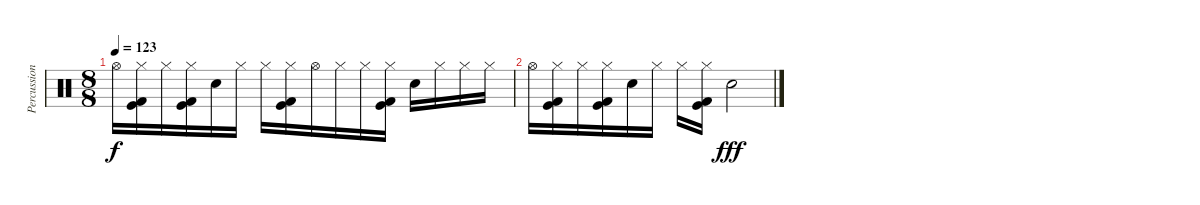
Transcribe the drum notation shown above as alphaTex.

\track ("Percussion" "Percussion") {instrument percussion}
\staff {score}
\articulation defaults
\ts (8 8)
\tempo 123
\clef neutral
\ks c "Hi-Hat (open)".16{dy f}
("Hi-Hat (closed)" "Kick (hit)" "Kick (hit) 2").16 "Hi-Hat (closed)".16 ("Hi-Hat (closed)" "Kick (hit)" "Kick (hit) 2").16 "Electric Snare (hit)".16 "Hi-Hat (closed)".16 "Hi-Hat (closed)".16 ("Hi-Hat (closed)" "Kick (hit) 2" "Kick (hit)").16 "Hi-Hat (open)".16 "Hi-Hat (closed)".16 "Hi-Hat (closed)".16 ("Hi-Hat (closed)" "Kick (hit)" "Kick (hit) 2").16 "Electric Snare (hit)".16 "Hi-Hat (closed)".16 "Hi-Hat (closed)".16 "Hi-Hat (closed)".16 |
"Hi-Hat (open)".16 ("Hi-Hat (closed)" "Kick (hit)" "Kick (hit) 2").16 "Hi-Hat (closed)".16 ("Hi-Hat (closed)" "Kick (hit)" "Kick (hit) 2").16 "Electric Snare (hit)".16 "Hi-Hat (closed)".16 "Hi-Hat (closed)".16 ("Hi-Hat (closed)" "Kick (hit) 2" "Kick (hit)").16 "Electric Snare (hit)".2{dy fff}
